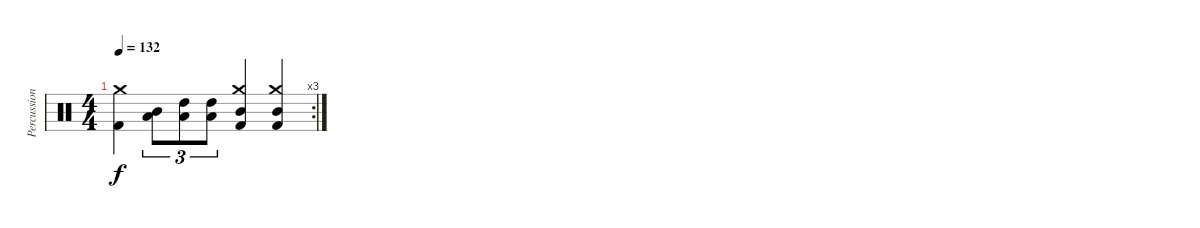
\track ("Percussion" "Percussion") {instrument percussion}
\staff {score}
\articulation defaults
\rc 3
\ts (4 4)
\tempo 132
\clef neutral
\ks c
("Kick (hit) 2" "Crash medium (hit)").4{dy f} ("Low Tom (hit)" "Mid Tom (hit)").8{tu (3 2)} ("Low Tom (hit)" "High Tom (hit)").8{tu (3 2)} ("Low Tom (hit)" "High Tom (hit)").8{tu (3 2)} ("Mid Tom (hit)" "Kick (hit) 2" "Crash medium (hit)").4 ("Mid Tom (hit)" "Kick (hit) 2" "Crash medium (hit)").4
